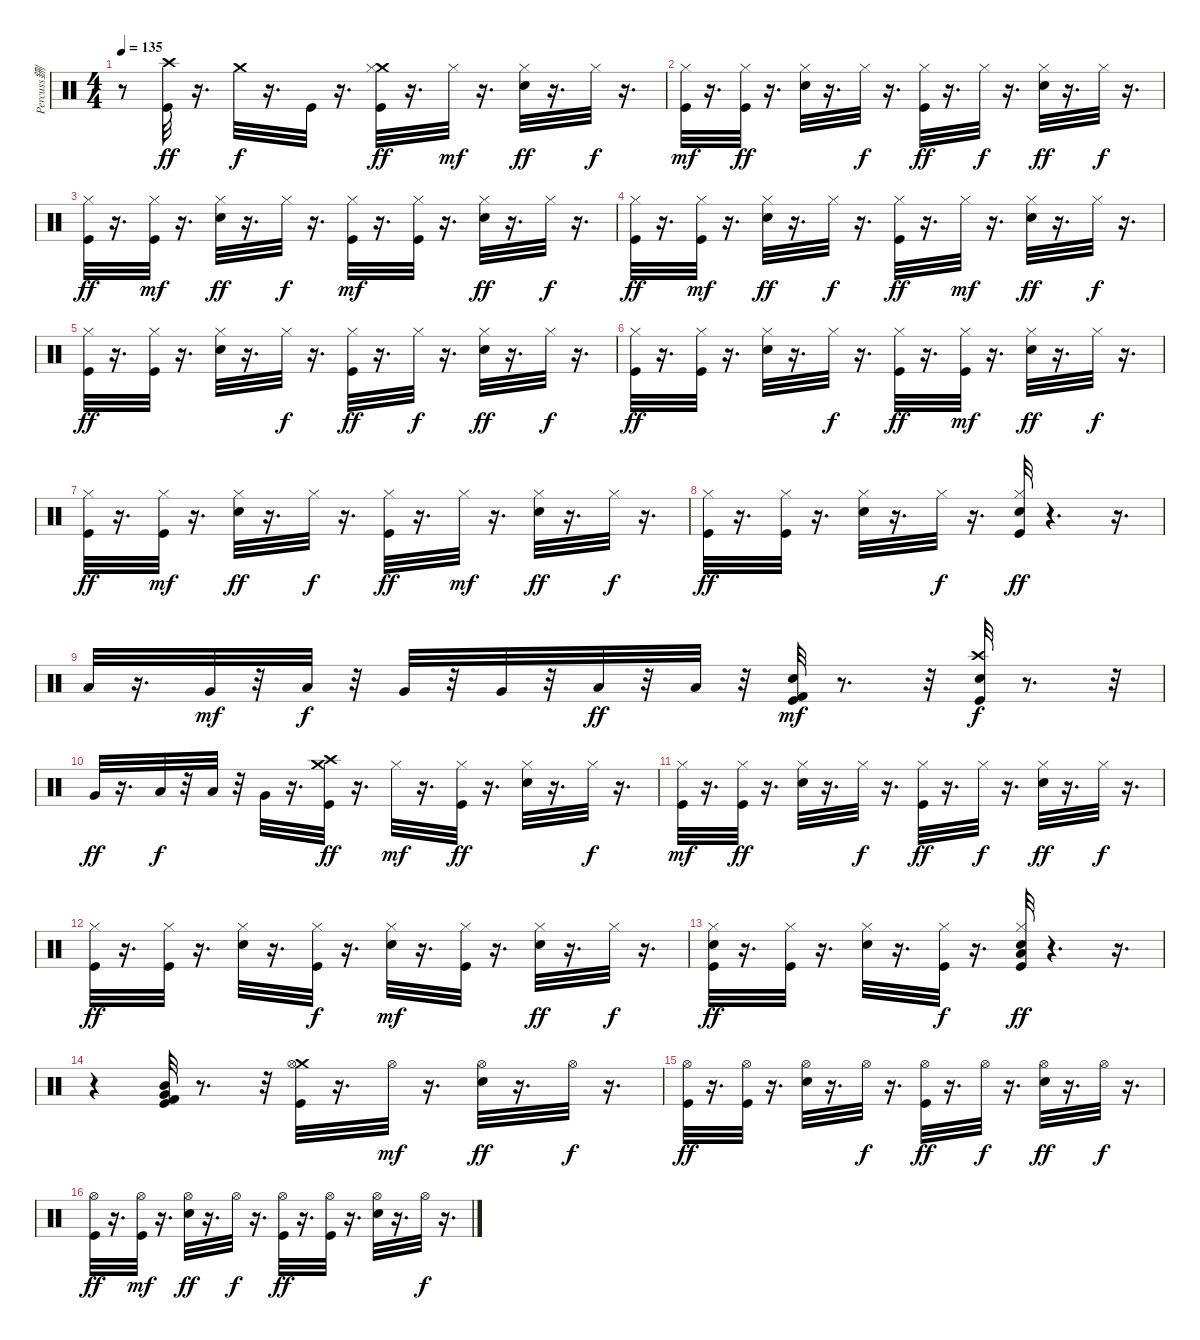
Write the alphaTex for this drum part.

\track ("Percuss鉶" "Percuss鉶") {instrument percussion}
\staff {score}
\articulation defaults
\ts (4 4)
\tempo 135
\clef neutral
\ks c
r.8{dy mf} ("Kick (hit)" "Crash high (hit)").32{dy ff} r.16{d} "Crash medium (hit)".32{dy f} r.16{d} "Kick (hit)".32 r.16{d} ("Kick (hit)" "Crash medium (hit)" "Hi-Hat (closed)").32{dy ff} r.16{d} "Hi-Hat (closed)".32{dy mf} r.16{d} ("Electric Snare (hit)" "Hi-Hat (closed)").32{dy ff} r.16{d} "Hi-Hat (closed)".32{dy f} r.16{d} |
("Kick (hit)" "Hi-Hat (closed)").32{dy mf} r.16{d} ("Hi-Hat (closed)" "Kick (hit)").32{dy ff} r.16{d} ("Electric Snare (hit)" "Hi-Hat (closed)").32 r.16{d} "Hi-Hat (closed)".32{dy f} r.16{d} ("Hi-Hat (closed)" "Kick (hit)").32{dy ff} r.16{d} "Hi-Hat (closed)".32{dy f} r.16{d} ("Electric Snare (hit)" "Hi-Hat (closed)").32{dy ff} r.16{d} "Hi-Hat (closed)".32{dy f} r.16{d} |
("Hi-Hat (closed)" "Kick (hit)").32{dy ff} r.16{d} ("Kick (hit)" "Hi-Hat (closed)").32{dy mf} r.16{d} ("Electric Snare (hit)" "Hi-Hat (closed)").32{dy ff} r.16{d} "Hi-Hat (closed)".32{dy f} r.16{d} ("Kick (hit)" "Hi-Hat (closed)").32{dy mf} r.16{d} ("Kick (hit)" "Hi-Hat (closed)").32 r.16{d} ("Hi-Hat (closed)" "Electric Snare (hit)").32{dy ff} r.16{d} "Hi-Hat (closed)".32{dy f} r.16{d} |
("Kick (hit)" "Hi-Hat (closed)").32{dy ff} r.16{d} ("Kick (hit)" "Hi-Hat (closed)").32{dy mf} r.16{d} ("Hi-Hat (closed)" "Electric Snare (hit)").32{dy ff} r.16{d} "Hi-Hat (closed)".32{dy f} r.16{d} ("Kick (hit)" "Hi-Hat (closed)").32{dy ff} r.16{d} "Hi-Hat (closed)".32{dy mf} r.16{d} ("Electric Snare (hit)" "Hi-Hat (closed)").32{dy ff} r.16{d} "Hi-Hat (closed)".32{dy f} r.16{d} |
("Hi-Hat (closed)" "Kick (hit)").32{dy ff} r.16{d} ("Hi-Hat (closed)" "Kick (hit)").32 r.16{d} ("Hi-Hat (closed)" "Electric Snare (hit)").32 r.16{d} "Hi-Hat (closed)".32{dy f} r.16{d} ("Hi-Hat (closed)" "Kick (hit)").32{dy ff} r.16{d} "Hi-Hat (closed)".32{dy f} r.16{d} ("Electric Snare (hit)" "Hi-Hat (closed)").32{dy ff} r.16{d} "Hi-Hat (closed)".32{dy f} r.16{d} |
("Kick (hit)" "Hi-Hat (closed)").32{dy ff} r.16{d} ("Hi-Hat (closed)" "Kick (hit)").32 r.16{d} ("Electric Snare (hit)" "Hi-Hat (closed)").32 r.16{d} "Hi-Hat (closed)".32{dy f} r.16{d} ("Hi-Hat (closed)" "Kick (hit)").32{dy ff} r.16{d} ("Kick (hit)" "Hi-Hat (closed)").32{dy mf} r.16{d} ("Hi-Hat (closed)" "Electric Snare (hit)").32{dy ff} r.16{d} "Hi-Hat (closed)".32{dy f} r.16{d} |
("Hi-Hat (closed)" "Kick (hit)").32{dy ff} r.16{d} ("Kick (hit)" "Hi-Hat (closed)").32{dy mf} r.16{d} ("Hi-Hat (closed)" "Electric Snare (hit)").32{dy ff} r.16{d} "Hi-Hat (closed)".32{dy f} r.16{d} ("Kick (hit)" "Hi-Hat (closed)").32{dy ff} r.16{d} "Hi-Hat (closed)".32{dy mf} r.16{d} ("Electric Snare (hit)" "Hi-Hat (closed)").32{dy ff} r.16{d} "Hi-Hat (closed)".32{dy f} r.16{d} |
("Hi-Hat (closed)" "Kick (hit)").32{dy ff} r.16{d} ("Hi-Hat (closed)" "Kick (hit)").32 r.16{d} ("Hi-Hat (closed)" "Electric Snare (hit)").32 r.16{d} "Hi-Hat (closed)".32{dy f} r.16{d} ("Electric Snare (hit)" "Hi-Hat (closed)" "Kick (hit)").32{dy ff} r.4{d} r.16{d} |
"Low Floor Tom (hit)".32 r.16{d} "Very Low Tom (hit)".32{dy mf} r.32 "Low Tom (hit)".32{dy f} r.32 "Very Low Tom (hit)".32 r.32 "Very Low Tom (hit)".32 r.32 "Low Floor Tom (hit)".32{dy ff} r.32 "Low Floor Tom (hit)".32 r.32 ("Kick (hit)" "Kick (hit) 2" "Electric Snare (hit)").32{dy mf} r.8{d} r.32 ("Kick (hit)" "Crash high (hit)" "Snare (hit) 2").32{dy f} r.8{d} r.32 |
"Very Low Tom (hit)".32{dy ff} r.16{d} "Low Floor Tom (hit)".32{dy f} r.32 "Low Tom (hit)".32 r.32 "Very Low Tom (hit)".32 r.16{d} ("Crash high (hit)" "Crash medium (hit)" "Kick (hit)").32{dy ff} r.16{d} "Hi-Hat (closed)".32{dy mf} r.16{d} ("Hi-Hat (closed)" "Kick (hit)").32{dy ff} r.16{d} ("Electric Snare (hit)" "Hi-Hat (closed)").32 r.16{d} "Hi-Hat (closed)".32{dy f} r.16{d} |
("Kick (hit)" "Hi-Hat (closed)").32{dy mf} r.16{d} ("Hi-Hat (closed)" "Kick (hit)").32{dy ff} r.16{d} ("Electric Snare (hit)" "Hi-Hat (closed)").32 r.16{d} "Hi-Hat (closed)".32{dy f} r.16{d} ("Hi-Hat (closed)" "Kick (hit)").32{dy ff} r.16{d} "Hi-Hat (closed)".32{dy f} r.16{d} ("Hi-Hat (closed)" "Electric Snare (hit)").32{dy ff} r.16{d} "Hi-Hat (closed)".32{dy f} r.16{d} |
("Kick (hit)" "Hi-Hat (closed)").32{dy ff} r.16{d} ("Hi-Hat (closed)" "Kick (hit)").32 r.16{d} ("Electric Snare (hit)" "Hi-Hat (closed)").32 r.16{d} ("Hi-Hat (closed)" "Kick (hit)").32{dy f} r.16{d} ("Electric Snare (hit)" "Hi-Hat (closed)").32{dy mf} r.16{d} ("Kick (hit)" "Hi-Hat (closed)").32 r.16{d} ("Hi-Hat (closed)" "Electric Snare (hit)").32{dy ff} r.16{d} "Hi-Hat (closed)".32{dy f} r.16{d} |
("Hi-Hat (closed)" "Kick (hit)" "Electric Snare (hit)").32{dy ff} r.16{d} ("Hi-Hat (closed)" "Kick (hit)").32 r.16{d} ("Hi-Hat (closed)" "Electric Snare (hit)").32 r.16{d} ("Kick (hit)" "Hi-Hat (closed)").32{dy f} r.16{d} ("Low Floor Tom (hit)" "Kick (hit)" "Electric Snare (hit)" "Hi-Hat (closed)").32{dy ff} r.4{d} r.16{d} |
r.4 ("Kick (hit)" "Kick (hit) 2" "Mid Tom (hit)" "Very Low Tom (hit)").32 r.8{d} r.32 ("Crash medium (hit)" "Hi-Hat (open)" "Kick (hit)").32 r.16{d} "Hi-Hat (open)".32{dy mf} r.16{d} ("Electric Snare (hit)" "Hi-Hat (open)").32{dy ff} r.16{d} "Hi-Hat (open)".32{dy f} r.16{d} |
("Hi-Hat (open)" "Kick (hit)").32{dy ff} r.16{d} ("Kick (hit)" "Hi-Hat (open)").32 r.16{d} ("Hi-Hat (open)" "Electric Snare (hit)").32 r.16{d} "Hi-Hat (open)".32{dy f} r.16{d} ("Hi-Hat (open)" "Kick (hit)").32{dy ff} r.16{d} "Hi-Hat (open)".32{dy f} r.16{d} ("Hi-Hat (open)" "Electric Snare (hit)").32{dy ff} r.16{d} "Hi-Hat (open)".32{dy f} r.16{d} |
("Hi-Hat (open)" "Kick (hit)").32{dy ff} r.16{d} ("Kick (hit)" "Hi-Hat (open)").32{dy mf} r.16{d} ("Hi-Hat (open)" "Electric Snare (hit)").32{dy ff} r.16{d} "Hi-Hat (open)".32{dy f} r.16{d} ("Hi-Hat (open)" "Kick (hit)").32{dy ff} r.16{d} ("Hi-Hat (open)" "Kick (hit)").32 r.16{d} ("Hi-Hat (open)" "Electric Snare (hit)").32 r.16{d} "Hi-Hat (open)".32{dy f} r.16{d}
